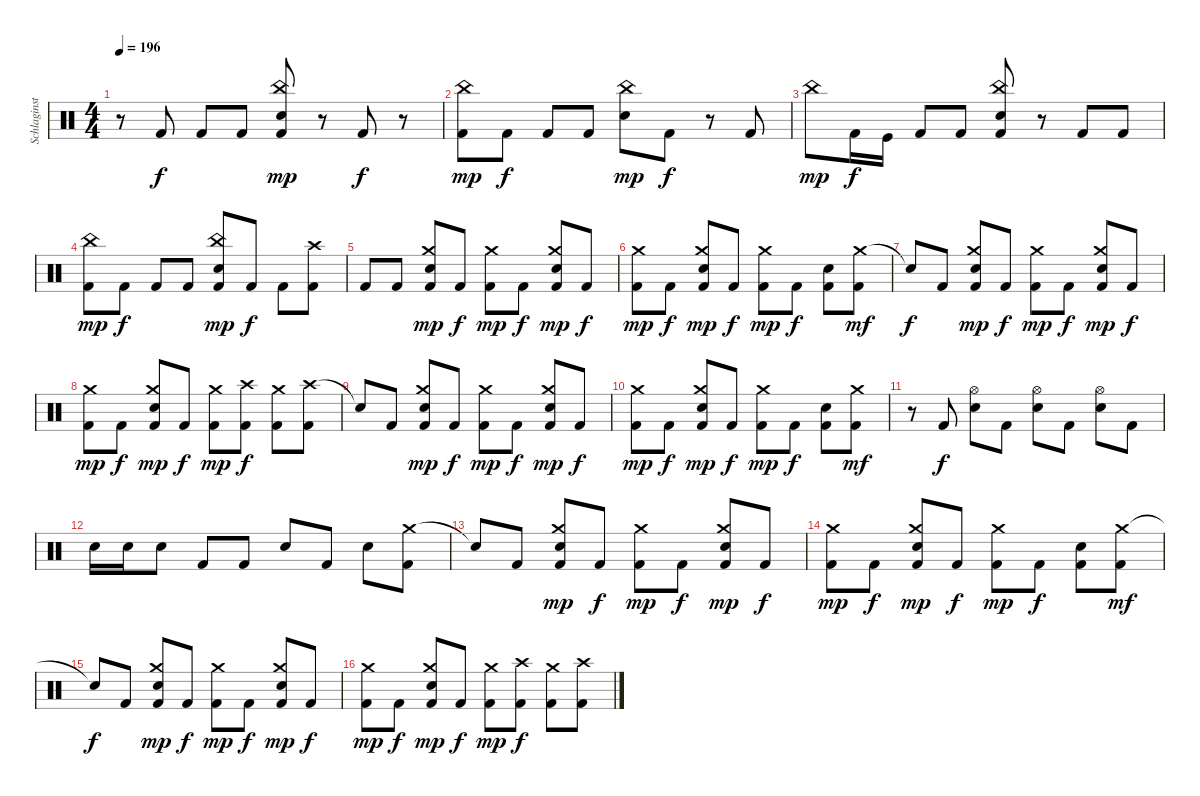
\track ("Schlaginstrumente - Auswahl" "Schlaginst") {instrument percussion}
\staff
\articulation defaults
\ts (4 4)
\tempo 196
\clef neutral
\ks c
r.8{dy f} "Kick (hit) 2".8 "Kick (hit) 2".8 "Kick (hit) 2".8 ("China (hit)" "Snare (hit) 2" "Kick (hit) 2").8{dy mp} r.8 "Kick (hit) 2".8{dy f} r.8 |
("China (hit)" "Kick (hit) 2").8{dy mp} "Kick (hit) 2".8{dy f} "Kick (hit) 2".8 "Kick (hit) 2".8 ("China (hit)" "Snare (hit) 2").8{dy mp} "Kick (hit) 2".8{dy f} r.8 "Kick (hit) 2".8 |
"China (hit)".8{dy mp} "Kick (hit) 2".16{dy f} "Kick (hit)".16 "Kick (hit) 2".8 "Kick (hit) 2".8 ("China (hit)" "Snare (hit) 2" "Kick (hit) 2").8 r.8 "Kick (hit) 2".8 "Kick (hit) 2".8 |
("China (hit)" "Kick (hit) 2").8{dy mp} "Kick (hit) 2".8{dy f} "Kick (hit) 2".8 "Kick (hit) 2".8 ("China (hit)" "Snare (hit) 2" "Kick (hit) 2").8{dy mp} "Kick (hit) 2".8{dy f} "Kick (hit) 2".8 ("Crash high (hit)" "Kick (hit) 2").8 |
"Kick (hit) 2".8 "Kick (hit) 2".8 ("Crash medium (hit)" "Electric Snare (hit)" "Kick (hit) 2").8{dy mp} "Kick (hit) 2".8{dy f} ("Crash medium (hit)" "Kick (hit) 2").8{dy mp} "Kick (hit) 2".8{dy f} ("Crash medium (hit)" "Electric Snare (hit)" "Kick (hit) 2").8{dy mp} "Kick (hit) 2".8{dy f} |
("Crash medium (hit)" "Kick (hit) 2").8{dy mp} "Kick (hit) 2".8{dy f} ("Crash medium (hit)" "Electric Snare (hit)" "Kick (hit) 2").8{dy mp} "Kick (hit) 2".8{dy f} ("Crash medium (hit)" "Kick (hit) 2").8{dy mp} "Kick (hit) 2".8{dy f} ("Electric Snare (hit)" "Kick (hit) 2").8 ("Crash medium (hit)" "Kick (hit) 2").8{dy mf} |
"Snare (hit)"{t}.8{dy f} "Kick (hit) 2".8 ("Crash medium (hit)" "Electric Snare (hit)" "Kick (hit) 2").8{dy mp} "Kick (hit) 2".8{dy f} ("Crash medium (hit)" "Kick (hit) 2").8{dy mp} "Kick (hit) 2".8{dy f} ("Crash medium (hit)" "Electric Snare (hit)" "Kick (hit) 2").8{dy mp} "Kick (hit) 2".8{dy f} |
("Crash medium (hit)" "Kick (hit) 2").8{dy mp} "Kick (hit) 2".8{dy f} ("Crash medium (hit)" "Electric Snare (hit)" "Kick (hit) 2").8{dy mp} "Kick (hit) 2".8{dy f} ("Crash medium (hit)" "Kick (hit) 2").8{dy mp} ("Crash high (hit)" "Kick (hit) 2").8{dy f} ("Crash medium (hit)" "Kick (hit) 2").8 ("Crash high (hit)" "Kick (hit) 2").8 |
"Snare (hit)"{t}.8 "Kick (hit) 2".8 ("Crash medium (hit)" "Electric Snare (hit)" "Kick (hit) 2").8{dy mp} "Kick (hit) 2".8{dy f} ("Crash medium (hit)" "Kick (hit) 2").8{dy mp} "Kick (hit) 2".8{dy f} ("Crash medium (hit)" "Electric Snare (hit)" "Kick (hit) 2").8{dy mp} "Kick (hit) 2".8{dy f} |
("Crash medium (hit)" "Kick (hit) 2").8{dy mp} "Kick (hit) 2".8{dy f} ("Crash medium (hit)" "Electric Snare (hit)" "Kick (hit) 2").8{dy mp} "Kick (hit) 2".8{dy f} ("Crash medium (hit)" "Kick (hit) 2").8{dy mp} "Kick (hit) 2".8{dy f} ("Electric Snare (hit)" "Kick (hit) 2").8 ("Crash medium (hit)" "Kick (hit) 2").8{dy mf} |
r.8 "Kick (hit) 2".8{dy f} ("Hi-Hat (open)" "Electric Snare (hit)").8 "Kick (hit) 2".8 ("Hi-Hat (open)" "Electric Snare (hit)").8 "Kick (hit) 2".8 ("Hi-Hat (open)" "Electric Snare (hit)").8 "Kick (hit) 2".8 |
"Electric Snare (hit)".16 "Electric Snare (hit)".16 "Electric Snare (hit)".8 "Kick (hit) 2".8 "Kick (hit) 2".8 "Electric Snare (hit)".8 "Kick (hit) 2".8 "Electric Snare (hit)".8 ("Crash medium (hit)" "Kick (hit) 2").8 |
"Snare (hit)"{t}.8 "Kick (hit) 2".8 ("Crash medium (hit)" "Electric Snare (hit)" "Kick (hit) 2").8{dy mp} "Kick (hit) 2".8{dy f} ("Crash medium (hit)" "Kick (hit) 2").8{dy mp} "Kick (hit) 2".8{dy f} ("Crash medium (hit)" "Electric Snare (hit)" "Kick (hit) 2").8{dy mp} "Kick (hit) 2".8{dy f} |
("Crash medium (hit)" "Kick (hit) 2").8{dy mp} "Kick (hit) 2".8{dy f} ("Crash medium (hit)" "Electric Snare (hit)" "Kick (hit) 2").8{dy mp} "Kick (hit) 2".8{dy f} ("Crash medium (hit)" "Kick (hit) 2").8{dy mp} "Kick (hit) 2".8{dy f} ("Electric Snare (hit)" "Kick (hit) 2").8 ("Crash medium (hit)" "Kick (hit) 2").8{dy mf} |
"Snare (hit)"{t}.8{dy f} "Kick (hit) 2".8 ("Crash medium (hit)" "Electric Snare (hit)" "Kick (hit) 2").8{dy mp} "Kick (hit) 2".8{dy f} ("Crash medium (hit)" "Kick (hit) 2").8{dy mp} "Kick (hit) 2".8{dy f} ("Crash medium (hit)" "Electric Snare (hit)" "Kick (hit) 2").8{dy mp} "Kick (hit) 2".8{dy f} |
("Crash medium (hit)" "Kick (hit) 2").8{dy mp} "Kick (hit) 2".8{dy f} ("Crash medium (hit)" "Electric Snare (hit)" "Kick (hit) 2").8{dy mp} "Kick (hit) 2".8{dy f} ("Crash medium (hit)" "Kick (hit) 2").8{dy mp} ("Crash high (hit)" "Kick (hit) 2").8{dy f} ("Crash medium (hit)" "Kick (hit) 2").8 ("Crash high (hit)" "Kick (hit) 2").8
